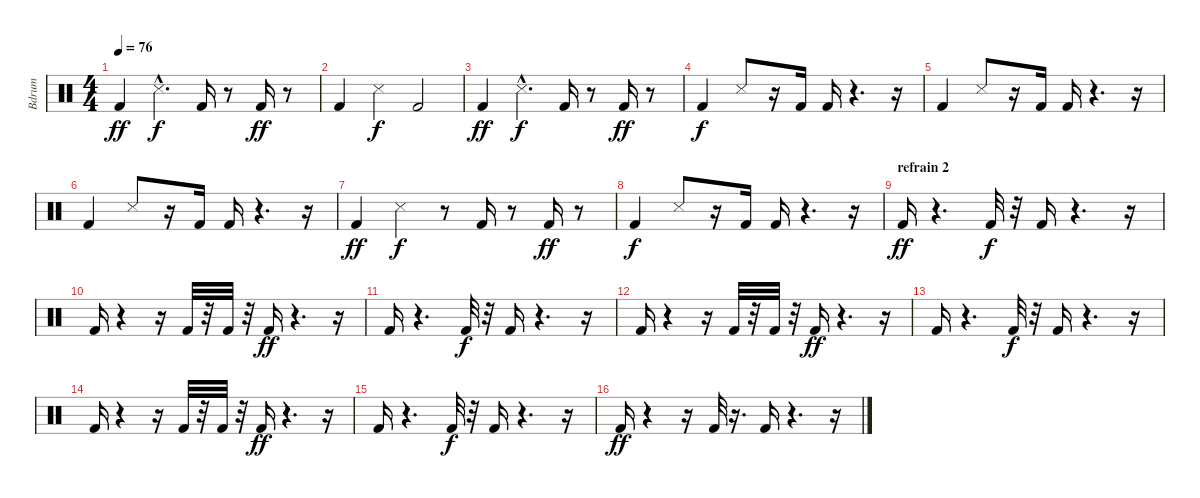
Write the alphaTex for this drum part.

\track ("Bdrum" "Bdrum") {instrument percussion}
\staff {score}
\articulation defaults
\ts (4 4)
\tempo 76
\clef neutral
\ks c "Kick (hit) 2".4{dy ff} "Snare (side stick) 3"{hac}.4{d dy f} "Kick (hit) 2".16
r.8 "Kick (hit) 2".16{dy ff} r.8 |
"Kick (hit) 2".4 "Snare (side stick) 3".4{dy f} "Kick (hit) 2".2 |
"Kick (hit) 2".4{dy ff} "Snare (side stick) 3"{hac}.4{d dy f} "Kick (hit) 2".16 r.8 "Kick (hit) 2".16{dy ff} r.8 |
"Kick (hit) 2".4{dy f} "Snare (side stick) 3".8 r.16 "Kick (hit) 2".16 "Kick (hit) 2".16 r.4{d} r.16 |
"Kick (hit) 2".4 "Snare (side stick) 3".8 r.16 "Kick (hit) 2".16 "Kick (hit) 2".16 r.4{d} r.16 |
"Kick (hit) 2".4 "Snare (side stick) 3".8 r.16 "Kick (hit) 2".16 "Kick (hit) 2".16 r.4{d} r.16 |
"Kick (hit) 2".4{dy ff} "Snare (side stick) 3".4{dy f} r.8 "Kick (hit) 2".16 r.8 "Kick (hit) 2".16{dy ff} r.8 |
"Kick (hit) 2".4{dy f} "Snare (side stick) 3".8 r.16 "Kick (hit) 2".16 "Kick (hit) 2".16 r.4{d} r.16 |
\section ("" "refrain 2")
"Kick (hit) 2".16{dy ff} r.4{d} "Kick (hit) 2".32{dy f} r.32 "Kick (hit) 2".16 r.4{d} r.16 |
"Kick (hit) 2".16 r.4 r.16 "Kick (hit) 2".32 r.32 "Kick (hit) 2".32 r.32 "Kick (hit) 2".16{dy ff} r.4{d} r.16 |
"Kick (hit) 2".16 r.4{d} "Kick (hit) 2".32{dy f} r.32 "Kick (hit) 2".16 r.4{d} r.16 |
"Kick (hit) 2".16 r.4 r.16 "Kick (hit) 2".32 r.32 "Kick (hit) 2".32 r.32 "Kick (hit) 2".16{dy ff} r.4{d} r.16 |
"Kick (hit) 2".16 r.4{d} "Kick (hit) 2".32{dy f} r.32 "Kick (hit) 2".16 r.4{d} r.16 |
"Kick (hit) 2".16 r.4 r.16 "Kick (hit) 2".32 r.32 "Kick (hit) 2".32 r.32 "Kick (hit) 2".16{dy ff} r.4{d} r.16 |
"Kick (hit) 2".16 r.4{d} "Kick (hit) 2".32{dy f} r.32 "Kick (hit) 2".16 r.4{d} r.16 |
"Kick (hit) 2".16{dy ff} r.4 r.16 "Kick (hit) 2".32 r.16{d} "Kick (hit) 2".16 r.4{d} r.16
